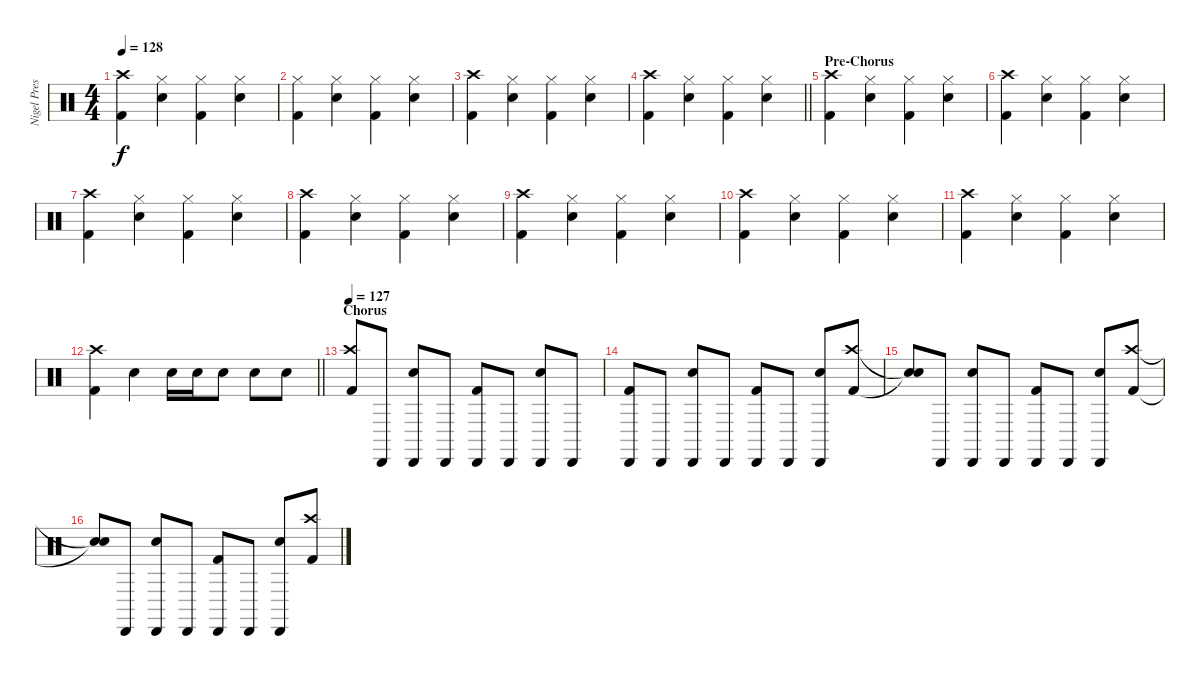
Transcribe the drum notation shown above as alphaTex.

\track ("Nigel Preston" "Nigel Pres") {instrument percussion}
\staff {score}
\articulation defaults
\ts (4 4)
\tempo 128
\clef neutral
\ks c
("Kick (hit) 2" "Crash high (hit)").4{dy f} ("Snare (hit) 2" "Hi-Hat (closed)").4 ("Kick (hit) 2" "Hi-Hat (closed)").4 ("Snare (hit) 2" "Hi-Hat (closed)").4 |
("Kick (hit) 2" "Hi-Hat (closed)").4 ("Snare (hit) 2" "Hi-Hat (closed)").4 ("Kick (hit) 2" "Hi-Hat (closed)").4 ("Snare (hit) 2" "Hi-Hat (closed)").4 |
("Kick (hit) 2" "Crash high (hit)").4 ("Snare (hit) 2" "Hi-Hat (closed)").4 ("Kick (hit) 2" "Hi-Hat (closed)").4 ("Snare (hit) 2" "Hi-Hat (closed)").4 |
\barLineRight lightlight
("Kick (hit) 2" "Crash high (hit)").4 ("Snare (hit) 2" "Hi-Hat (closed)").4 ("Kick (hit) 2" "Hi-Hat (closed)").4 ("Snare (hit) 2" "Hi-Hat (closed)").4 |
\section ("" "Pre-Chorus")
("Kick (hit) 2" "Crash high (hit)").4 ("Snare (hit) 2" "Hi-Hat (closed)").4 ("Kick (hit) 2" "Hi-Hat (closed)").4 ("Snare (hit) 2" "Hi-Hat (closed)").4 |
("Kick (hit) 2" "Crash high (hit)").4 ("Snare (hit) 2" "Hi-Hat (closed)").4 ("Kick (hit) 2" "Hi-Hat (closed)").4 ("Snare (hit) 2" "Hi-Hat (closed)").4 |
("Kick (hit) 2" "Crash high (hit)").4 ("Snare (hit) 2" "Hi-Hat (closed)").4 ("Kick (hit) 2" "Hi-Hat (closed)").4 ("Snare (hit) 2" "Hi-Hat (closed)").4 |
("Kick (hit) 2" "Crash high (hit)").4 ("Snare (hit) 2" "Hi-Hat (closed)").4 ("Kick (hit) 2" "Hi-Hat (closed)").4 ("Snare (hit) 2" "Hi-Hat (closed)").4 |
("Kick (hit) 2" "Crash high (hit)").4 ("Snare (hit) 2" "Hi-Hat (closed)").4 ("Kick (hit) 2" "Hi-Hat (closed)").4 ("Snare (hit) 2" "Hi-Hat (closed)").4 |
("Kick (hit) 2" "Crash high (hit)").4 ("Snare (hit) 2" "Hi-Hat (closed)").4 ("Kick (hit) 2" "Hi-Hat (closed)").4 ("Snare (hit) 2" "Hi-Hat (closed)").4 |
("Kick (hit) 2" "Crash high (hit)").4 ("Snare (hit) 2" "Hi-Hat (closed)").4 ("Kick (hit) 2" "Hi-Hat (closed)").4 ("Snare (hit) 2" "Hi-Hat (closed)").4 |
\barLineRight lightlight
("Kick (hit) 2" "Crash high (hit)").4 "Snare (hit) 2".4 "Snare (hit) 2".16 "Snare (hit) 2".16 "Snare (hit) 2".8 "Snare (hit) 2".8 "Snare (hit) 2".8 |
\section ("" "Chorus")
\tempo 127
("Kick (hit) 2" "Crash high (hit)").8 "Cabasa (hit)".8 ("Snare (hit) 2" "Cabasa (hit)").8 "Cabasa (hit)".8 ("Kick (hit) 2" "Cabasa (hit)").8 "Cabasa (hit)".8 ("Snare (hit) 2" "Cabasa (hit)").8 "Cabasa (hit)".8 |
("Kick (hit) 2" "Cabasa (hit)").8 "Cabasa (hit)".8 ("Snare (hit) 2" "Cabasa (hit)").8 "Cabasa (hit)".8 ("Kick (hit) 2" "Cabasa (hit)").8 "Cabasa (hit)".8 ("Snare (hit) 2" "Cabasa (hit)").8 ("Kick (hit) 2" "Crash high (hit)").8 |
("Snare (hit)"{t} "Snare (hit)"{t}).8 "Cabasa (hit)".8 ("Snare (hit) 2" "Cabasa (hit)").8 "Cabasa (hit)".8 ("Kick (hit) 2" "Cabasa (hit)").8 "Cabasa (hit)".8 ("Snare (hit) 2" "Cabasa (hit)").8 ("Kick (hit) 2" "Crash high (hit)").8 |
("Snare (hit)"{t} "Snare (hit)"{t}).8 "Cabasa (hit)".8 ("Snare (hit) 2" "Cabasa (hit)").8 "Cabasa (hit)".8 ("Kick (hit) 2" "Cabasa (hit)").8 "Cabasa (hit)".8 ("Snare (hit) 2" "Cabasa (hit)").8 ("Kick (hit) 2" "Crash high (hit)").8
